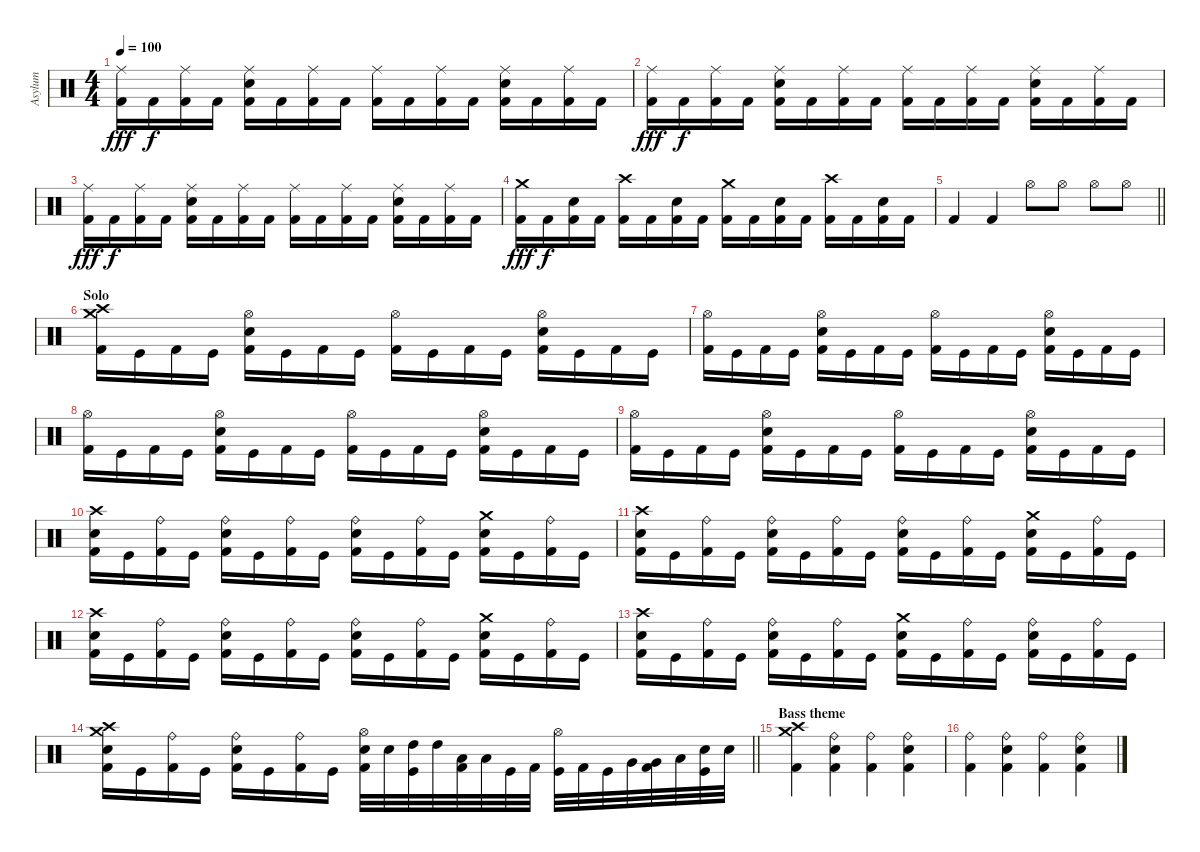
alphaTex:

\track ("Asylum" "Asylum") {instrument percussion}
\staff {score}
\articulation defaults
\ts (4 4)
\tempo 100
\clef neutral
\ks c
("Ride (middle)" "Kick (hit) 2").16{dy fff} "Kick (hit) 2".16{dy f} ("Ride (middle)" "Kick (hit) 2").16 "Kick (hit) 2".16 ("Ride (middle)" "Electric Snare (hit)" "Kick (hit) 2").16 "Kick (hit) 2".16 ("Ride (middle)" "Kick (hit) 2").16 "Kick (hit) 2".16 ("Ride (middle)" "Kick (hit) 2").16 "Kick (hit) 2".16 ("Ride (middle)" "Kick (hit) 2").16 "Kick (hit) 2".16 ("Ride (middle)" "Electric Snare (hit)" "Kick (hit) 2").16 "Kick (hit) 2".16 ("Ride (middle)" "Kick (hit) 2").16 "Kick (hit) 2".16 |
("Ride (middle)" "Kick (hit) 2").16{dy fff} "Kick (hit) 2".16{dy f} ("Ride (middle)" "Kick (hit) 2").16 "Kick (hit) 2".16 ("Ride (middle)" "Electric Snare (hit)" "Kick (hit) 2").16 "Kick (hit) 2".16 ("Ride (middle)" "Kick (hit) 2").16 "Kick (hit) 2".16 ("Ride (middle)" "Kick (hit) 2").16 "Kick (hit) 2".16 ("Ride (middle)" "Kick (hit) 2").16 "Kick (hit) 2".16 ("Ride (middle)" "Electric Snare (hit)" "Kick (hit) 2").16 "Kick (hit) 2".16 ("Ride (middle)" "Kick (hit) 2").16 "Kick (hit) 2".16 |
("Ride (middle)" "Kick (hit) 2").16{dy fff} "Kick (hit) 2".16{dy f} ("Ride (middle)" "Kick (hit) 2").16 "Kick (hit) 2".16 ("Ride (middle)" "Electric Snare (hit)" "Kick (hit) 2").16 "Kick (hit) 2".16 ("Ride (middle)" "Kick (hit) 2").16 "Kick (hit) 2".16 ("Ride (middle)" "Kick (hit) 2").16 "Kick (hit) 2".16 ("Ride (middle)" "Kick (hit) 2").16 "Kick (hit) 2".16 ("Ride (middle)" "Electric Snare (hit)" "Kick (hit) 2").16 "Kick (hit) 2".16 ("Ride (middle)" "Kick (hit) 2").16 "Kick (hit) 2".16 |
("Crash medium (hit)" "Kick (hit) 2").16{dy fff} "Kick (hit) 2".16{dy f} ("Electric Snare (hit)" "Kick (hit) 2").16 "Kick (hit) 2".16 ("Crash high (hit)" "Kick (hit) 2").16 "Kick (hit) 2".16 ("Electric Snare (hit)" "Kick (hit) 2").16 "Kick (hit) 2".16 ("Crash medium (hit)" "Kick (hit) 2").16 "Kick (hit) 2".16 ("Electric Snare (hit)" "Kick (hit) 2").16 "Kick (hit) 2".16 ("Crash high (hit)" "Kick (hit) 2").16 "Kick (hit) 2".16 ("Electric Snare (hit)" "Kick (hit) 2").16 "Kick (hit) 2".16 |
\barLineRight lightlight "Kick (hit) 2".4 "Kick (hit) 2".4 "Hi-Hat (open)".8 "Hi-Hat (open)".8 "Hi-Hat (open)".8 "Hi-Hat (open)".8
|
\section ("" "Solo")
("Crash medium (hit)" "Crash high (hit)" "Kick (hit) 2").16 "Kick (hit)".16 "Kick (hit) 2".16 "Kick (hit)".16 ("Hi-Hat (open)" "Electric Snare (hit)" "Kick (hit) 2").16 "Kick (hit)".16 "Kick (hit) 2".16 "Kick (hit)".16 ("Hi-Hat (open)" "Kick (hit) 2").16 "Kick (hit)".16 "Kick (hit) 2".16 "Kick (hit)".16 ("Hi-Hat (open)" "Electric Snare (hit)" "Kick (hit) 2").16 "Kick (hit)".16 "Kick (hit) 2".16 "Kick (hit)".16 |
("Hi-Hat (open)" "Kick (hit) 2").16 "Kick (hit)".16 "Kick (hit) 2".16 "Kick (hit)".16 ("Hi-Hat (open)" "Electric Snare (hit)" "Kick (hit) 2").16 "Kick (hit)".16 "Kick (hit) 2".16 "Kick (hit)".16 ("Hi-Hat (open)" "Kick (hit) 2").16 "Kick (hit)".16 "Kick (hit) 2".16 "Kick (hit)".16 ("Hi-Hat (open)" "Electric Snare (hit)" "Kick (hit) 2").16 "Kick (hit)".16 "Kick (hit) 2".16 "Kick (hit)".16 |
("Hi-Hat (open)" "Kick (hit) 2").16 "Kick (hit)".16 "Kick (hit) 2".16 "Kick (hit)".16 ("Hi-Hat (open)" "Electric Snare (hit)" "Kick (hit) 2").16 "Kick (hit)".16 "Kick (hit) 2".16 "Kick (hit)".16 ("Hi-Hat (open)" "Kick (hit) 2").16 "Kick (hit)".16 "Kick (hit) 2".16 "Kick (hit)".16 ("Hi-Hat (open)" "Electric Snare (hit)" "Kick (hit) 2").16 "Kick (hit)".16 "Kick (hit) 2".16 "Kick (hit)".16 |
("Hi-Hat (open)" "Kick (hit) 2").16 "Kick (hit)".16 "Kick (hit) 2".16 "Kick (hit)".16 ("Hi-Hat (open)" "Electric Snare (hit)" "Kick (hit) 2").16 "Kick (hit)".16 "Kick (hit) 2".16 "Kick (hit)".16 ("Hi-Hat (open)" "Kick (hit) 2").16 "Kick (hit)".16 "Kick (hit) 2".16 "Kick (hit)".16 ("Hi-Hat (open)" "Electric Snare (hit)" "Kick (hit) 2").16 "Kick (hit)".16 "Kick (hit) 2".16 "Kick (hit)".16 |
("Crash high (hit)" "Electric Snare (hit)" "Kick (hit) 2").16 "Kick (hit)".16 ("Ride (bell)" "Kick (hit) 2").16 "Kick (hit)".16 ("Ride (bell)" "Electric Snare (hit)" "Kick (hit) 2").16 "Kick (hit)".16 ("Ride (bell)" "Kick (hit) 2").16 "Kick (hit)".16 ("Ride (bell)" "Electric Snare (hit)" "Kick (hit) 2").16 "Kick (hit)".16 ("Ride (bell)" "Kick (hit) 2").16 "Kick (hit)".16 ("Crash medium (hit)" "Electric Snare (hit)" "Kick (hit) 2").16 "Kick (hit)".16 ("Ride (bell)" "Kick (hit) 2").16 "Kick (hit)".16 |
("Crash high (hit)" "Electric Snare (hit)" "Kick (hit) 2").16 "Kick (hit)".16 ("Ride (bell)" "Kick (hit) 2").16 "Kick (hit)".16 ("Ride (bell)" "Electric Snare (hit)" "Kick (hit) 2").16 "Kick (hit)".16 ("Ride (bell)" "Kick (hit) 2").16 "Kick (hit)".16 ("Ride (bell)" "Electric Snare (hit)" "Kick (hit) 2").16 "Kick (hit)".16 ("Ride (bell)" "Kick (hit) 2").16 "Kick (hit)".16 ("Crash medium (hit)" "Electric Snare (hit)" "Kick (hit) 2").16 "Kick (hit)".16 ("Ride (bell)" "Kick (hit) 2").16 "Kick (hit)".16 |
("Crash high (hit)" "Electric Snare (hit)" "Kick (hit) 2").16 "Kick (hit)".16 ("Ride (bell)" "Kick (hit) 2").16 "Kick (hit)".16 ("Ride (bell)" "Electric Snare (hit)" "Kick (hit) 2").16 "Kick (hit)".16 ("Ride (bell)" "Kick (hit) 2").16 "Kick (hit)".16 ("Ride (bell)" "Electric Snare (hit)" "Kick (hit) 2").16 "Kick (hit)".16 ("Ride (bell)" "Kick (hit) 2").16 "Kick (hit)".16 ("Crash medium (hit)" "Electric Snare (hit)" "Kick (hit) 2").16 "Kick (hit)".16 ("Ride (bell)" "Kick (hit) 2").16 "Kick (hit)".16 |
("Crash high (hit)" "Electric Snare (hit)" "Kick (hit) 2").16 "Kick (hit)".16 ("Ride (bell)" "Kick (hit) 2").16 "Kick (hit)".16 ("Ride (bell)" "Electric Snare (hit)" "Kick (hit) 2").16 "Kick (hit)".16 ("Ride (bell)" "Kick (hit) 2").16 "Kick (hit)".16 ("Crash medium (hit)" "Electric Snare (hit)" "Kick (hit) 2").16 "Kick (hit)".16 ("Ride (bell)" "Kick (hit) 2").16 "Kick (hit)".16 ("Ride (bell)" "Electric Snare (hit)" "Kick (hit) 2").16 "Kick (hit)".16 ("Ride (bell)" "Kick (hit) 2").16 "Kick (hit)".16 |
\barLineRight lightlight
("Crash medium (hit)" "Crash high (hit)" "Electric Snare (hit)" "Kick (hit) 2").16 "Kick (hit)".16 ("Ride (bell)" "Kick (hit) 2").16 "Kick (hit)".16 ("Ride (bell)" "Electric Snare (hit)" "Kick (hit) 2").16 "Kick (hit)".16 ("Ride (bell)" "Kick (hit) 2").16 "Kick (hit)".16 ("Hi-Hat (open)" "Electric Snare (hit)" "Kick (hit) 2").32 "Electric Snare (hit)".32 ("High Tom (hit)" "Kick (hit)").32 "High Tom (hit)".32 ("Low Tom (hit)" "Kick (hit) 2").32 "Low Tom (hit)".32 "Kick (hit)".32 "Kick (hit) 2".32 ("Hi-Hat (open)" "Kick (hit)").32 "Kick (hit) 2".32 "Kick (hit)".32 "Very Low Tom (hit)".32 ("Very Low Tom (hit)" "Kick (hit) 2").32 "Low Tom (hit)".32 ("Electric Snare (hit)" "Kick (hit)").32 "Electric Snare (hit)".32 |
\section ("" "Bass theme")
("Crash medium (hit)" "Crash high (hit)" "Kick (hit) 2").4 ("Ride (bell)" "Electric Snare (hit)" "Kick (hit) 2").4 ("Ride (bell)" "Kick (hit) 2").4 ("Ride (bell)" "Electric Snare (hit)" "Kick (hit) 2").4 |
("Ride (bell)" "Kick (hit) 2").4 ("Ride (bell)" "Electric Snare (hit)" "Kick (hit) 2").4 ("Ride (bell)" "Kick (hit) 2").4 ("Ride (bell)" "Electric Snare (hit)" "Kick (hit) 2").4
